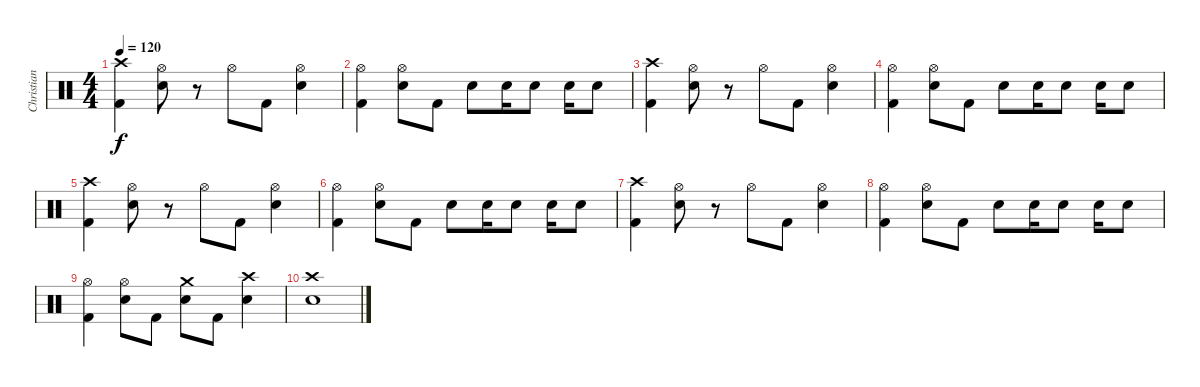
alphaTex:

\track ("Christian" "Christian") {instrument percussion}
\staff {score}
\articulation defaults
\ts (4 4)
\tempo 120
\clef neutral
\ks c
("Crash high (hit)" "Kick (hit) 2").4{dy f} ("Hi-Hat (open)" "Electric Snare (hit)").8 r.8 "Hi-Hat (open)".8 "Kick (hit) 2".8 ("Hi-Hat (open)" "Electric Snare (hit)").4 |
("Hi-Hat (open)" "Kick (hit) 2").4 ("Hi-Hat (open)" "Electric Snare (hit)").8 "Kick (hit) 2".8 "Electric Snare (hit)".8 "Electric Snare (hit)".16 "Electric Snare (hit)".8 "Electric Snare (hit)".16 "Electric Snare (hit)".8 |
("Crash high (hit)" "Kick (hit) 2").4 ("Hi-Hat (open)" "Electric Snare (hit)").8 r.8 "Hi-Hat (open)".8 "Kick (hit) 2".8 ("Hi-Hat (open)" "Electric Snare (hit)").4 |
("Hi-Hat (open)" "Kick (hit) 2").4 ("Hi-Hat (open)" "Electric Snare (hit)").8 "Kick (hit) 2".8 "Electric Snare (hit)".8 "Electric Snare (hit)".16 "Electric Snare (hit)".8 "Electric Snare (hit)".16 "Electric Snare (hit)".8 |
("Crash high (hit)" "Kick (hit) 2").4 ("Hi-Hat (open)" "Electric Snare (hit)").8 r.8 "Hi-Hat (open)".8 "Kick (hit) 2".8 ("Hi-Hat (open)" "Electric Snare (hit)").4 |
("Hi-Hat (open)" "Kick (hit) 2").4 ("Hi-Hat (open)" "Electric Snare (hit)").8 "Kick (hit) 2".8 "Electric Snare (hit)".8 "Electric Snare (hit)".16 "Electric Snare (hit)".8 "Electric Snare (hit)".16 "Electric Snare (hit)".8 |
("Crash high (hit)" "Kick (hit) 2").4 ("Hi-Hat (open)" "Electric Snare (hit)").8 r.8 "Hi-Hat (open)".8 "Kick (hit) 2".8 ("Hi-Hat (open)" "Electric Snare (hit)").4 |
("Hi-Hat (open)" "Kick (hit) 2").4 ("Hi-Hat (open)" "Electric Snare (hit)").8 "Kick (hit) 2".8 "Electric Snare (hit)".8 "Electric Snare (hit)".16 "Electric Snare (hit)".8 "Electric Snare (hit)".16 "Electric Snare (hit)".8 |
("Hi-Hat (open)" "Kick (hit) 2").4 ("Hi-Hat (open)" "Electric Snare (hit)").8 "Kick (hit) 2".8 ("Crash medium (hit)" "Electric Snare (hit)").8 "Kick (hit) 2".8 ("Crash high (hit)" "Electric Snare (hit)").4 |
("Crash high (hit)" "Snare (hit) 2").1
